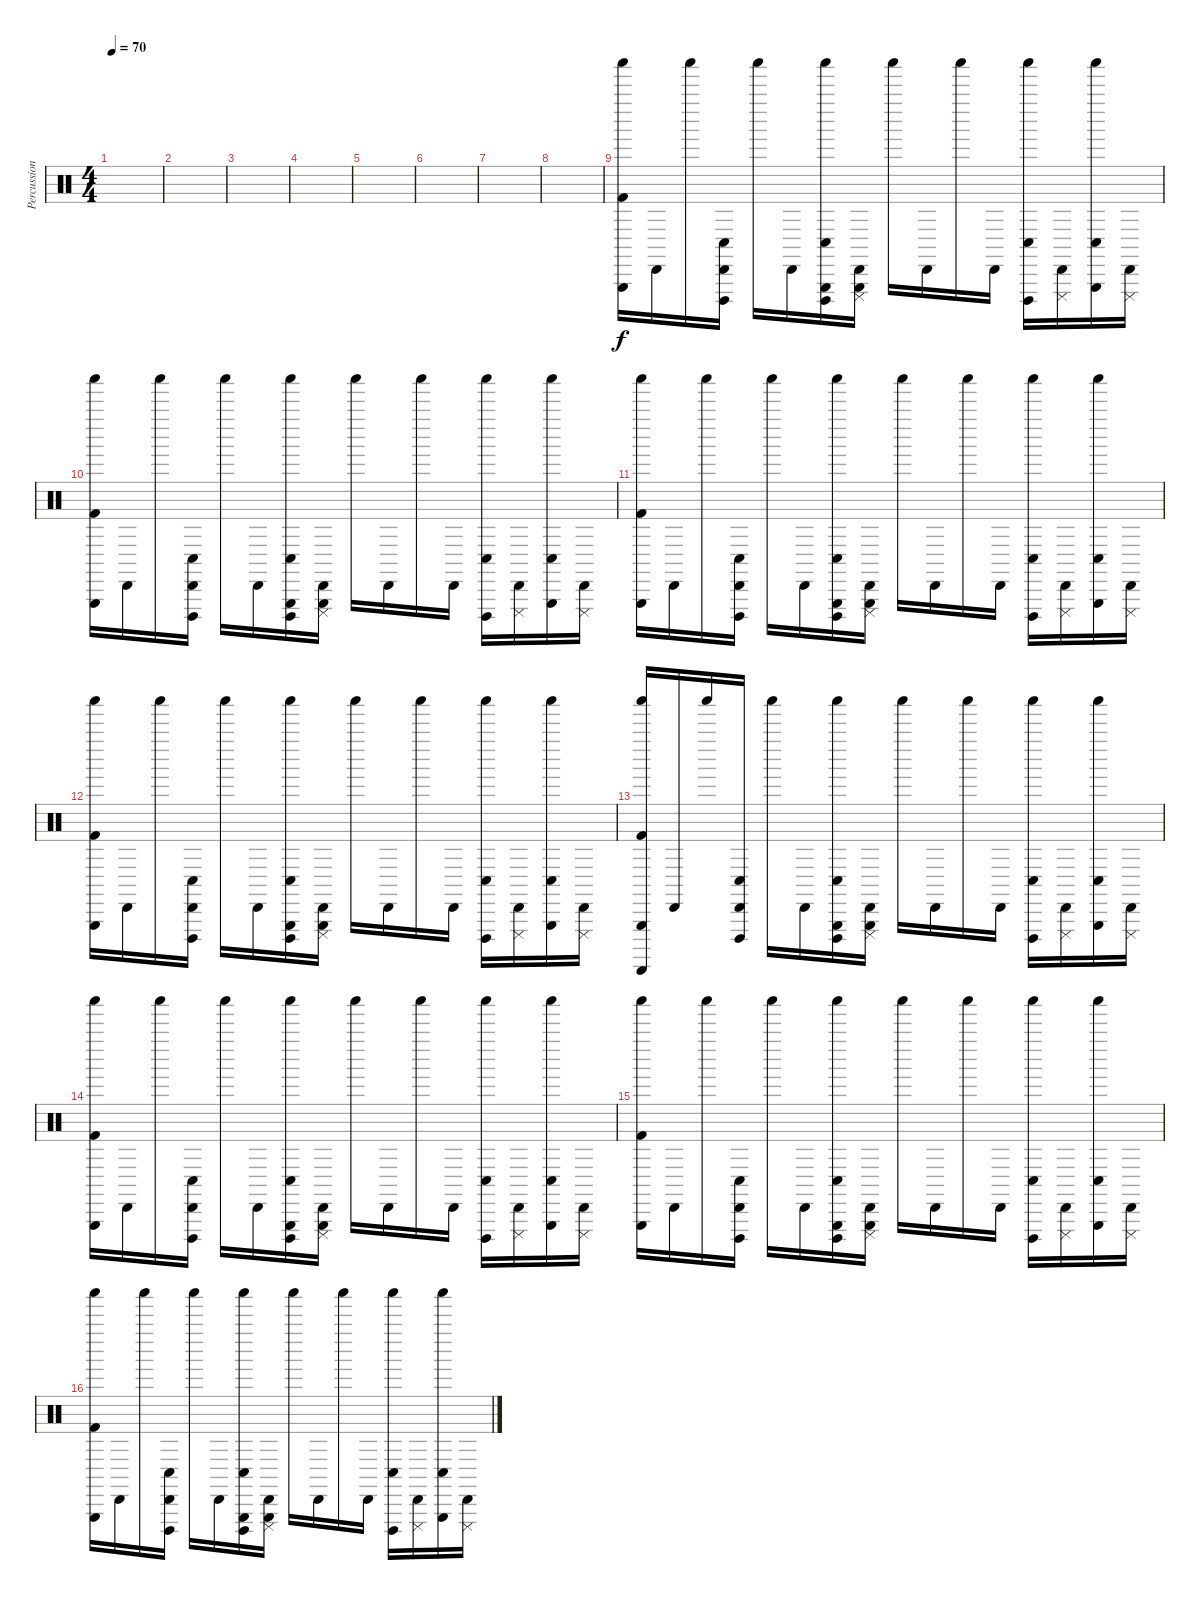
\track ("Percussion" "Percussion") {instrument percussion}
\staff {score}
\articulation defaults
\ts (4 4)
\tempo 70
\clef neutral
\ks c
|
|
|
|
|
|
|
|
("Triangle (hit)" "Shaker (hit)" "Kick (hit) 2").16 "Cabasa (hit)".16 "Shaker (hit)".16 ("Cabasa (hit)" "Cuica (open)" "Conga low (hit)").16 "Shaker (hit)".16 "Cabasa (hit)".16 ("Triangle (hit)" "Shaker (hit)" "Cuica (open)" "Conga low (hit)").16 ("Triangle (hit)" "Cabasa (hit)" "Cuica (mute)").16 "Shaker (hit)".16 "Cabasa (hit)".16 "Shaker (hit)".16 "Cabasa (hit)".16 ("Shaker (hit)" "Cuica (open)" "Conga low (hit)").16 ("Cabasa (hit)" "Cuica (mute)").16 ("Triangle (hit)" "Shaker (hit)" "Conga low (hit)").16 ("Cabasa (hit)" "Cuica (mute)").16 |
("Triangle (hit)" "Shaker (hit)" "Kick (hit) 2").16 "Cabasa (hit)".16 "Shaker (hit)".16 ("Cabasa (hit)" "Cuica (open)" "Conga low (hit)").16 "Shaker (hit)".16 "Cabasa (hit)".16 ("Triangle (hit)" "Shaker (hit)" "Cuica (open)" "Conga low (hit)").16 ("Triangle (hit)" "Cabasa (hit)" "Cuica (mute)").16 "Shaker (hit)".16 "Cabasa (hit)".16 "Shaker (hit)".16 "Cabasa (hit)".16 ("Shaker (hit)" "Cuica (open)" "Conga low (hit)").16 ("Cabasa (hit)" "Cuica (mute)").16 ("Triangle (hit)" "Shaker (hit)" "Conga low (hit)").16 ("Cabasa (hit)" "Cuica (mute)").16 |
("Triangle (hit)" "Shaker (hit)" "Kick (hit) 2").16 "Cabasa (hit)".16 "Shaker (hit)".16 ("Cabasa (hit)" "Cuica (open)" "Conga low (hit)").16 "Shaker (hit)".16 "Cabasa (hit)".16 ("Triangle (hit)" "Shaker (hit)" "Cuica (open)" "Conga low (hit)").16 ("Triangle (hit)" "Cabasa (hit)" "Cuica (mute)").16 "Shaker (hit)".16 "Cabasa (hit)".16 "Shaker (hit)".16 "Cabasa (hit)".16 ("Shaker (hit)" "Cuica (open)" "Conga low (hit)").16 ("Cabasa (hit)" "Cuica (mute)").16 ("Triangle (hit)" "Shaker (hit)" "Conga low (hit)").16 ("Cabasa (hit)" "Cuica (mute)").16 |
("Triangle (hit)" "Shaker (hit)" "Kick (hit) 2").16 "Cabasa (hit)".16 "Shaker (hit)".16 ("Cabasa (hit)" "Cuica (open)" "Conga low (hit)").16 "Shaker (hit)".16 "Cabasa (hit)".16 ("Triangle (hit)" "Shaker (hit)" "Cuica (open)" "Conga low (hit)").16 ("Triangle (hit)" "Cabasa (hit)" "Cuica (mute)").16 "Shaker (hit)".16 "Cabasa (hit)".16 "Shaker (hit)".16 "Cabasa (hit)".16 ("Shaker (hit)" "Cuica (open)" "Conga low (hit)").16 ("Cabasa (hit)" "Cuica (mute)").16 ("Triangle (hit)" "Shaker (hit)" "Conga low (hit)").16 ("Cabasa (hit)" "Cuica (mute)").16 |
("Triangle (hit)" "Guiro (scrap-return)" "Shaker (hit)" "Kick (hit) 2").16 "Cabasa (hit)".16 "Shaker (hit)".16 ("Cabasa (hit)" "Cuica (open)" "Conga low (hit)").16 "Shaker (hit)".16 "Cabasa (hit)".16 ("Triangle (hit)" "Shaker (hit)" "Cuica (open)" "Conga low (hit)").16 ("Triangle (hit)" "Cabasa (hit)" "Cuica (mute)").16 "Shaker (hit)".16 "Cabasa (hit)".16 "Shaker (hit)".16 "Cabasa (hit)".16 ("Shaker (hit)" "Cuica (open)" "Conga low (hit)").16 ("Cabasa (hit)" "Cuica (mute)").16 ("Triangle (hit)" "Shaker (hit)" "Conga low (hit)").16 ("Cabasa (hit)" "Cuica (mute)").16 |
("Triangle (hit)" "Shaker (hit)" "Kick (hit) 2").16 "Cabasa (hit)".16 "Shaker (hit)".16 ("Cabasa (hit)" "Cuica (open)" "Conga low (hit)").16 "Shaker (hit)".16 "Cabasa (hit)".16 ("Triangle (hit)" "Shaker (hit)" "Cuica (open)" "Conga low (hit)").16 ("Triangle (hit)" "Cabasa (hit)" "Cuica (mute)").16 "Shaker (hit)".16 "Cabasa (hit)".16 "Shaker (hit)".16 "Cabasa (hit)".16 ("Shaker (hit)" "Cuica (open)" "Conga low (hit)").16 ("Cabasa (hit)" "Cuica (mute)").16 ("Triangle (hit)" "Shaker (hit)" "Conga low (hit)").16 ("Cabasa (hit)" "Cuica (mute)").16 |
("Triangle (hit)" "Shaker (hit)" "Kick (hit) 2").16 "Cabasa (hit)".16 "Shaker (hit)".16 ("Cabasa (hit)" "Cuica (open)" "Conga low (hit)").16 "Shaker (hit)".16 "Cabasa (hit)".16 ("Triangle (hit)" "Shaker (hit)" "Cuica (open)" "Conga low (hit)").16 ("Triangle (hit)" "Cabasa (hit)" "Cuica (mute)").16 "Shaker (hit)".16 "Cabasa (hit)".16 "Shaker (hit)".16 "Cabasa (hit)".16 ("Shaker (hit)" "Cuica (open)" "Conga low (hit)").16 ("Cabasa (hit)" "Cuica (mute)").16 ("Triangle (hit)" "Shaker (hit)" "Conga low (hit)").16 ("Cabasa (hit)" "Cuica (mute)").16 |
("Triangle (hit)" "Shaker (hit)" "Kick (hit) 2").16 "Cabasa (hit)".16 "Shaker (hit)".16 ("Cabasa (hit)" "Cuica (open)" "Conga low (hit)").16 "Shaker (hit)".16 "Cabasa (hit)".16 ("Triangle (hit)" "Shaker (hit)" "Cuica (open)" "Conga low (hit)").16 ("Triangle (hit)" "Cabasa (hit)" "Cuica (mute)").16 "Shaker (hit)".16 "Cabasa (hit)".16 "Shaker (hit)".16 "Cabasa (hit)".16 ("Shaker (hit)" "Cuica (open)" "Conga low (hit)").16 ("Cabasa (hit)" "Cuica (mute)").16 ("Triangle (hit)" "Shaker (hit)" "Conga low (hit)").16 ("Cabasa (hit)" "Cuica (mute)").16
